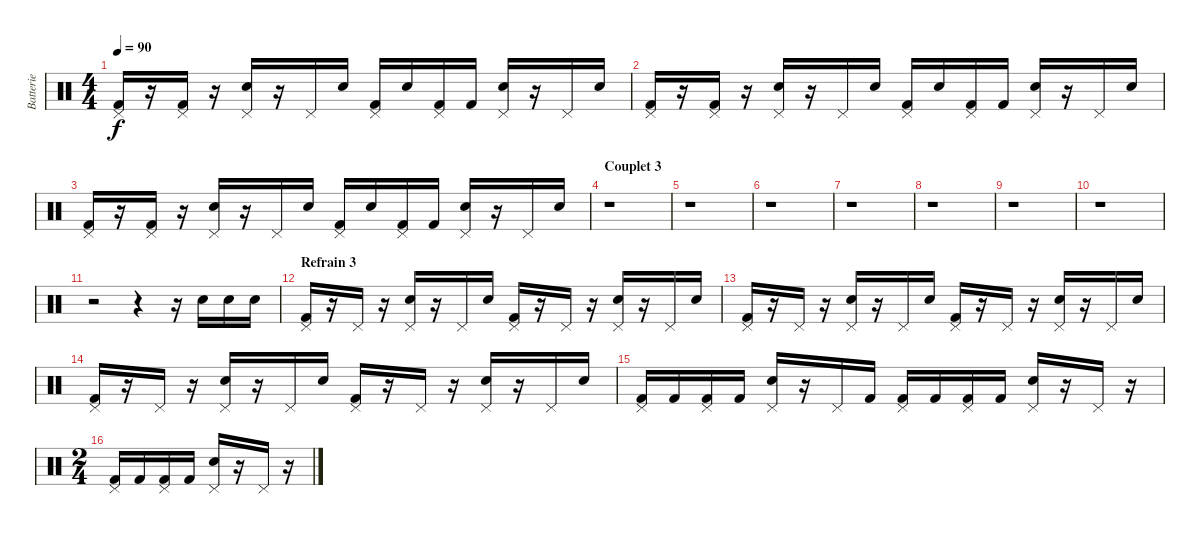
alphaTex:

\track ("Batterie" "Batterie") {instrument percussion}
\staff {score}
\articulation defaults
\ts (4 4)
\tempo 90
\clef neutral
\ks c
("Pedal Hi-Hat (hit)" "Kick (hit) 2").16{dy f} r.16 ("Pedal Hi-Hat (hit)" "Kick (hit) 2").16 r.16 ("Pedal Hi-Hat (hit)" "Electric Snare (hit)").16 r.16 "Pedal Hi-Hat (hit)".16 "Electric Snare (hit)".16 ("Pedal Hi-Hat (hit)" "Kick (hit) 2").16 "Electric Snare (hit)".16 ("Pedal Hi-Hat (hit)" "Kick (hit) 2").16 "Kick (hit) 2".16 ("Pedal Hi-Hat (hit)" "Electric Snare (hit)").16 r.16 "Pedal Hi-Hat (hit)".16 "Electric Snare (hit)".16 |
("Pedal Hi-Hat (hit)" "Kick (hit) 2").16 r.16 ("Pedal Hi-Hat (hit)" "Kick (hit) 2").16 r.16 ("Pedal Hi-Hat (hit)" "Electric Snare (hit)").16 r.16 "Pedal Hi-Hat (hit)".16 "Electric Snare (hit)".16 ("Pedal Hi-Hat (hit)" "Kick (hit) 2").16 "Electric Snare (hit)".16 ("Pedal Hi-Hat (hit)" "Kick (hit) 2").16 "Kick (hit) 2".16 ("Pedal Hi-Hat (hit)" "Electric Snare (hit)").16 r.16 "Pedal Hi-Hat (hit)".16 "Electric Snare (hit)".16 |
("Pedal Hi-Hat (hit)" "Kick (hit) 2").16 r.16 ("Pedal Hi-Hat (hit)" "Kick (hit) 2").16 r.16 ("Pedal Hi-Hat (hit)" "Electric Snare (hit)").16 r.16 "Pedal Hi-Hat (hit)".16 "Electric Snare (hit)".16 ("Pedal Hi-Hat (hit)" "Kick (hit) 2").16 "Electric Snare (hit)".16 ("Pedal Hi-Hat (hit)" "Kick (hit) 2").16 "Kick (hit) 2".16 ("Pedal Hi-Hat (hit)" "Electric Snare (hit)").16 r.16 "Pedal Hi-Hat (hit)".16 "Electric Snare (hit)".16 |
\section ("" "Couplet 3")
r.1 |
r.1 |
r.1 |
r.1 |
r.1 |
r.1 |
r.1 |
r.2 r.4 r.16 "Electric Snare (hit)".16 "Electric Snare (hit)".16 "Electric Snare (hit)".16 |
\section ("" "Refrain 3")
("Pedal Hi-Hat (hit)" "Kick (hit) 2").16 r.16 "Pedal Hi-Hat (hit)".16 r.16 ("Pedal Hi-Hat (hit)" "Electric Snare (hit)").16 r.16 "Pedal Hi-Hat (hit)".16 "Electric Snare (hit)".16 ("Pedal Hi-Hat (hit)" "Kick (hit) 2").16 r.16 "Pedal Hi-Hat (hit)".16 r.16 ("Pedal Hi-Hat (hit)" "Electric Snare (hit)").16 r.16 "Pedal Hi-Hat (hit)".16 "Electric Snare (hit)".16 |
("Pedal Hi-Hat (hit)" "Kick (hit) 2").16 r.16 "Pedal Hi-Hat (hit)".16 r.16 ("Pedal Hi-Hat (hit)" "Electric Snare (hit)").16 r.16 "Pedal Hi-Hat (hit)".16 "Electric Snare (hit)".16 ("Pedal Hi-Hat (hit)" "Kick (hit) 2").16 r.16 "Pedal Hi-Hat (hit)".16 r.16 ("Pedal Hi-Hat (hit)" "Electric Snare (hit)").16 r.16 "Pedal Hi-Hat (hit)".16 "Electric Snare (hit)".16 |
("Pedal Hi-Hat (hit)" "Kick (hit) 2").16 r.16 "Pedal Hi-Hat (hit)".16 r.16 ("Pedal Hi-Hat (hit)" "Electric Snare (hit)").16 r.16 "Pedal Hi-Hat (hit)".16 "Electric Snare (hit)".16 ("Pedal Hi-Hat (hit)" "Kick (hit) 2").16 r.16 "Pedal Hi-Hat (hit)".16 r.16 ("Pedal Hi-Hat (hit)" "Electric Snare (hit)").16 r.16 "Pedal Hi-Hat (hit)".16 "Electric Snare (hit)".16 |
("Pedal Hi-Hat (hit)" "Kick (hit) 2").16 "Kick (hit) 2".16 ("Pedal Hi-Hat (hit)" "Kick (hit) 2").16 "Kick (hit) 2".16 ("Pedal Hi-Hat (hit)" "Electric Snare (hit)").16 r.16 "Pedal Hi-Hat (hit)".16 "Kick (hit) 2".16 ("Pedal Hi-Hat (hit)" "Kick (hit) 2").16 "Kick (hit) 2".16 ("Pedal Hi-Hat (hit)" "Kick (hit) 2").16 "Kick (hit) 2".16 ("Pedal Hi-Hat (hit)" "Electric Snare (hit)").16 r.16 "Pedal Hi-Hat (hit)".16 r.16 |
\ts (2 4)
("Pedal Hi-Hat (hit)" "Kick (hit) 2").16 "Kick (hit) 2".16 ("Pedal Hi-Hat (hit)" "Kick (hit) 2").16 "Kick (hit) 2".16 ("Pedal Hi-Hat (hit)" "Electric Snare (hit)").16 r.16 "Pedal Hi-Hat (hit)".16 r.16
